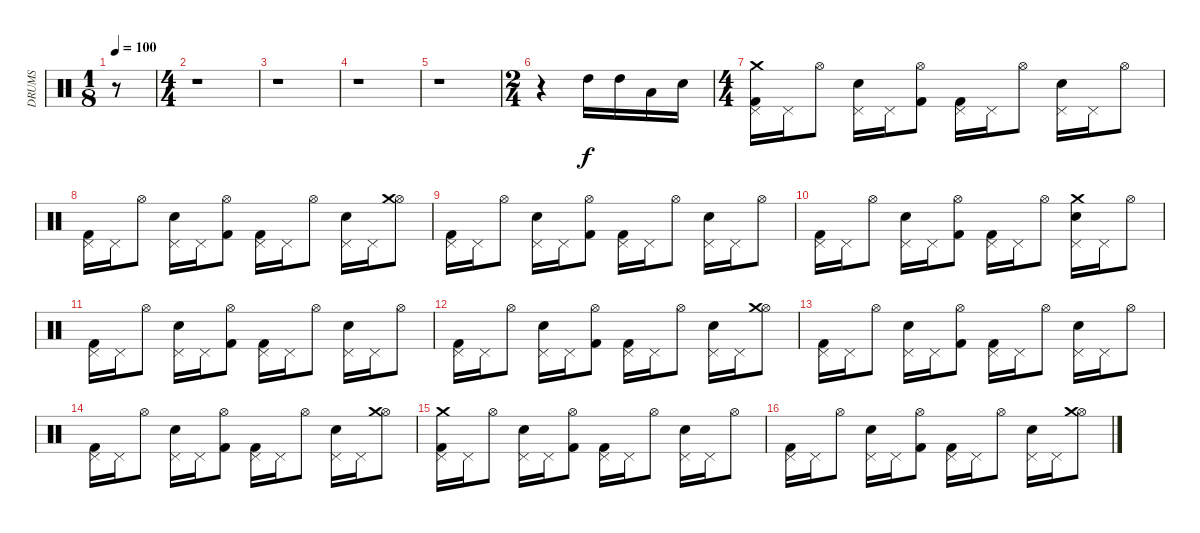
\track ("DRUMS" "DRUMS") {instrument percussion}
\staff {score}
\articulation defaults
\ts (1 8)
\tempo 100
\clef neutral
\ks c
r.8{dy f} |
\ts (4 4)
r.1 |
r.1 |
r.1 |
r.1 |
\ts (2 4)
r.4 "High Tom (hit)".16 "High Tom (hit)".16 "Low Tom (hit)".16 "Electric Snare (hit)".16 |
\ts (4 4)
("Kick (hit) 2" "Pedal Hi-Hat (hit)" "Crash medium (hit)").16 "Pedal Hi-Hat (hit)".16 "Hi-Hat (open)".8 ("Electric Snare (hit)" "Pedal Hi-Hat (hit)").16 "Pedal Hi-Hat (hit)".16 ("Kick (hit) 2" "Hi-Hat (open)").8 ("Kick (hit) 2" "Pedal Hi-Hat (hit)").16 "Pedal Hi-Hat (hit)".16 "Hi-Hat (open)".8 ("Electric Snare (hit)" "Pedal Hi-Hat (hit)").16 "Pedal Hi-Hat (hit)".16 "Hi-Hat (open)".8 |
("Kick (hit) 2" "Pedal Hi-Hat (hit)").16 "Pedal Hi-Hat (hit)".16 "Hi-Hat (open)".8 ("Electric Snare (hit)" "Pedal Hi-Hat (hit)").16 "Pedal Hi-Hat (hit)".16 ("Kick (hit) 2" "Hi-Hat (open)").8 ("Kick (hit) 2" "Pedal Hi-Hat (hit)").16 "Pedal Hi-Hat (hit)".16 "Hi-Hat (open)".8 ("Electric Snare (hit)" "Pedal Hi-Hat (hit)").16 "Pedal Hi-Hat (hit)".16 ("Hi-Hat (open)" "Crash medium (hit)").8 |
("Kick (hit) 2" "Pedal Hi-Hat (hit)").16 "Pedal Hi-Hat (hit)".16 "Hi-Hat (open)".8 ("Electric Snare (hit)" "Pedal Hi-Hat (hit)").16 "Pedal Hi-Hat (hit)".16 ("Kick (hit) 2" "Hi-Hat (open)").8 ("Kick (hit) 2" "Pedal Hi-Hat (hit)").16 "Pedal Hi-Hat (hit)".16 "Hi-Hat (open)".8 ("Electric Snare (hit)" "Pedal Hi-Hat (hit)").16 "Pedal Hi-Hat (hit)".16 "Hi-Hat (open)".8 |
("Kick (hit) 2" "Pedal Hi-Hat (hit)").16 "Pedal Hi-Hat (hit)".16 "Hi-Hat (open)".8 ("Electric Snare (hit)" "Pedal Hi-Hat (hit)").16 "Pedal Hi-Hat (hit)".16 ("Kick (hit) 2" "Hi-Hat (open)").8 ("Kick (hit) 2" "Pedal Hi-Hat (hit)").16 "Pedal Hi-Hat (hit)".16 "Hi-Hat (open)".8 ("Electric Snare (hit)" "Pedal Hi-Hat (hit)" "Crash medium (hit)").16 "Pedal Hi-Hat (hit)".16 "Hi-Hat (open)".8 |
("Kick (hit) 2" "Pedal Hi-Hat (hit)").16 "Pedal Hi-Hat (hit)".16 "Hi-Hat (open)".8 ("Electric Snare (hit)" "Pedal Hi-Hat (hit)").16 "Pedal Hi-Hat (hit)".16 ("Kick (hit) 2" "Hi-Hat (open)").8 ("Kick (hit) 2" "Pedal Hi-Hat (hit)").16 "Pedal Hi-Hat (hit)".16 "Hi-Hat (open)".8 ("Electric Snare (hit)" "Pedal Hi-Hat (hit)").16 "Pedal Hi-Hat (hit)".16 "Hi-Hat (open)".8 |
("Kick (hit) 2" "Pedal Hi-Hat (hit)").16 "Pedal Hi-Hat (hit)".16 "Hi-Hat (open)".8 ("Electric Snare (hit)" "Pedal Hi-Hat (hit)").16 "Pedal Hi-Hat (hit)".16 ("Kick (hit) 2" "Hi-Hat (open)").8 ("Kick (hit) 2" "Pedal Hi-Hat (hit)").16 "Pedal Hi-Hat (hit)".16 "Hi-Hat (open)".8 ("Electric Snare (hit)" "Pedal Hi-Hat (hit)").16 "Pedal Hi-Hat (hit)".16 ("Hi-Hat (open)" "Crash medium (hit)").8 |
("Kick (hit) 2" "Pedal Hi-Hat (hit)").16 "Pedal Hi-Hat (hit)".16 "Hi-Hat (open)".8 ("Electric Snare (hit)" "Pedal Hi-Hat (hit)").16 "Pedal Hi-Hat (hit)".16 ("Kick (hit) 2" "Hi-Hat (open)").8 ("Kick (hit) 2" "Pedal Hi-Hat (hit)").16 "Pedal Hi-Hat (hit)".16 "Hi-Hat (open)".8 ("Electric Snare (hit)" "Pedal Hi-Hat (hit)").16 "Pedal Hi-Hat (hit)".16 "Hi-Hat (open)".8 |
("Kick (hit) 2" "Pedal Hi-Hat (hit)").16 "Pedal Hi-Hat (hit)".16 "Hi-Hat (open)".8 ("Electric Snare (hit)" "Pedal Hi-Hat (hit)").16 "Pedal Hi-Hat (hit)".16 ("Kick (hit) 2" "Hi-Hat (open)").8 ("Kick (hit) 2" "Pedal Hi-Hat (hit)").16 "Pedal Hi-Hat (hit)".16 "Hi-Hat (open)".8 ("Electric Snare (hit)" "Pedal Hi-Hat (hit)").16 "Pedal Hi-Hat (hit)".16 ("Hi-Hat (open)" "Crash medium (hit)").8 |
("Kick (hit) 2" "Pedal Hi-Hat (hit)" "Crash medium (hit)").16 "Pedal Hi-Hat (hit)".16 "Hi-Hat (open)".8 ("Electric Snare (hit)" "Pedal Hi-Hat (hit)").16 "Pedal Hi-Hat (hit)".16 ("Kick (hit) 2" "Hi-Hat (open)").8 ("Kick (hit) 2" "Pedal Hi-Hat (hit)").16 "Pedal Hi-Hat (hit)".16 "Hi-Hat (open)".8 ("Electric Snare (hit)" "Pedal Hi-Hat (hit)").16 "Pedal Hi-Hat (hit)".16 "Hi-Hat (open)".8 |
("Kick (hit) 2" "Pedal Hi-Hat (hit)").16 "Pedal Hi-Hat (hit)".16 "Hi-Hat (open)".8 ("Electric Snare (hit)" "Pedal Hi-Hat (hit)").16 "Pedal Hi-Hat (hit)".16 ("Kick (hit) 2" "Hi-Hat (open)").8 ("Kick (hit) 2" "Pedal Hi-Hat (hit)").16 "Pedal Hi-Hat (hit)".16 "Hi-Hat (open)".8 ("Electric Snare (hit)" "Pedal Hi-Hat (hit)").16 "Pedal Hi-Hat (hit)".16 ("Hi-Hat (open)" "Crash medium (hit)").8
